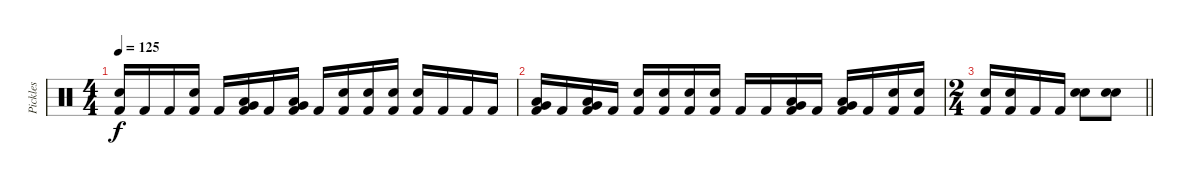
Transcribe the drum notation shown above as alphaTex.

\track ("Pickles" "Pickles") {instrument percussion}
\staff {score}
\articulation defaults
\ts (4 4)
\tempo 125
\clef neutral
\ks c
("Electric Snare (hit)" "Kick (hit) 2").16{dy f} "Kick (hit) 2".16 "Kick (hit) 2".16 ("Electric Snare (hit)" "Kick (hit) 2").16 "Kick (hit) 2".16 ("Low Tom (hit)" "Very Low Tom (hit)" "Kick (hit) 2").16 "Kick (hit) 2".16 ("Low Tom (hit)" "Very Low Tom (hit)" "Kick (hit) 2").16 "Kick (hit) 2".16 ("Electric Snare (hit)" "Kick (hit) 2").16 ("Electric Snare (hit)" "Kick (hit) 2").16 ("Electric Snare (hit)" "Kick (hit) 2").16 ("Electric Snare (hit)" "Kick (hit) 2").16 "Kick (hit) 2".16 "Kick (hit) 2".16 "Kick (hit) 2".16 |
("Low Tom (hit)" "Very Low Tom (hit)" "Kick (hit) 2").16 "Kick (hit) 2".16 ("Low Tom (hit)" "Very Low Tom (hit)" "Kick (hit) 2").16 "Kick (hit) 2".16 ("Electric Snare (hit)" "Kick (hit) 2").16 ("Electric Snare (hit)" "Kick (hit) 2").16 ("Electric Snare (hit)" "Kick (hit) 2").16 ("Electric Snare (hit)" "Kick (hit) 2").16 "Kick (hit) 2".16 "Kick (hit) 2".16 ("Low Tom (hit)" "Very Low Tom (hit)" "Kick (hit) 2").16 "Kick (hit) 2".16 ("Low Tom (hit)" "Very Low Tom (hit)" "Kick (hit) 2").16 "Kick (hit) 2".16 ("Electric Snare (hit)" "Kick (hit) 2").16 ("Electric Snare (hit)" "Kick (hit) 2").16 |
\ts (2 4)
\barLineRight lightlight
("Electric Snare (hit)" "Kick (hit) 2").16 ("Electric Snare (hit)" "Kick (hit) 2").16 "Kick (hit) 2".16 "Kick (hit) 2".16 ("Electric Snare (hit)" "Electric Snare (hit)").8{bd 120} ("Electric Snare (hit)" "Electric Snare (hit)").8{bd 120}
